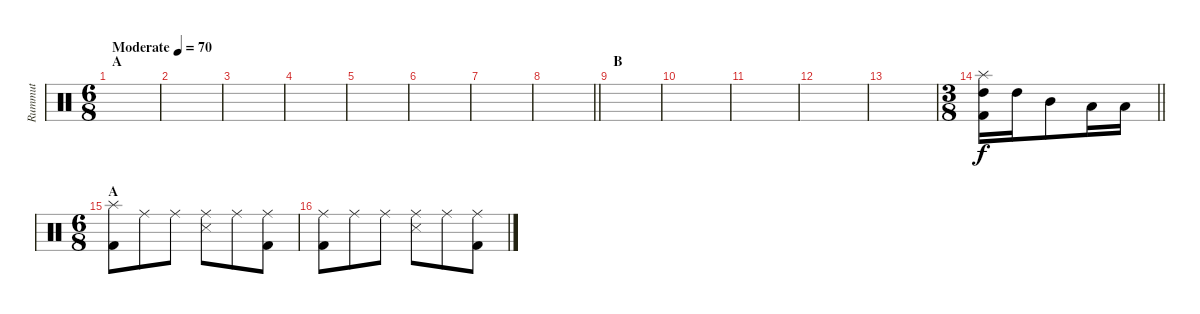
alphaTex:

\track ("Rummut" "Rummut") {instrument percussion}
\staff {score}
\articulation defaults
\ts (6 8)
\section ("" "A")
\tempo (70 "Moderate")
\clef neutral
\ks c
|
|
|
|
|
|
|
\barLineRight lightlight
|
\section ("" "B")
|
|
|
|
|
\ts (3 8)
\barLineRight lightlight
("Splash (hit)" "High Tom (hit)" "Kick (hit) 2").16 "High Tom (hit)".16 "Mid Tom (hit)".8 "Low Tom (hit)".16 "Low Tom (hit)".16 |
\ts (6 8)
\section ("" "A")
("Splash (hit)" "Kick (hit) 2").8 "Ride (middle)".8 "Ride (middle)".8 ("Ride (middle)" "Snare (side stick) 3").8 "Ride (middle)".8 ("Ride (middle)" "Kick (hit) 2").8 |
("Ride (middle)" "Kick (hit) 2").8 "Ride (middle)".8 "Ride (middle)".8 ("Ride (middle)" "Snare (side stick) 3").8 "Ride (middle)".8 ("Ride (middle)" "Kick (hit) 2").8
